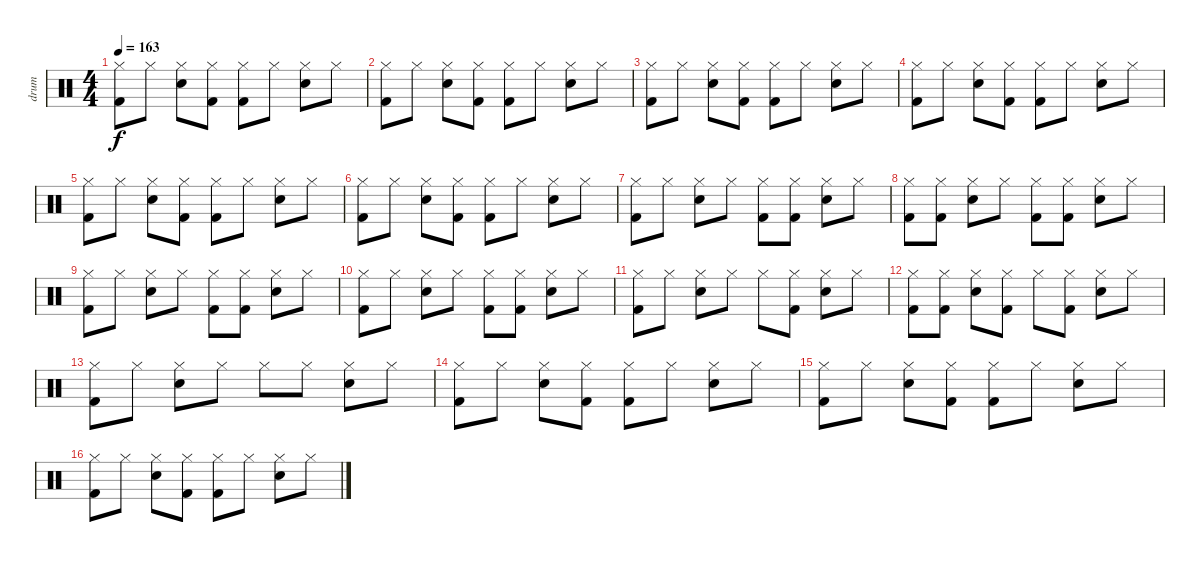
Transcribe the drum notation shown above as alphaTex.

\track ("drum" "drum") {instrument percussion}
\staff {score}
\articulation defaults
\ts (4 4)
\tempo 163
\clef neutral
\ks c
("Hi-Hat (closed)" "Kick (hit) 2").8{dy f} "Hi-Hat (closed)".8 ("Hi-Hat (closed)" "Electric Snare (hit)").8 ("Hi-Hat (closed)" "Kick (hit) 2").8 ("Hi-Hat (closed)" "Kick (hit) 2").8 "Hi-Hat (closed)".8 ("Hi-Hat (closed)" "Electric Snare (hit)").8 "Hi-Hat (closed)".8 |
("Hi-Hat (closed)" "Kick (hit) 2").8 "Hi-Hat (closed)".8 ("Hi-Hat (closed)" "Electric Snare (hit)").8 ("Hi-Hat (closed)" "Kick (hit) 2").8 ("Hi-Hat (closed)" "Kick (hit) 2").8 "Hi-Hat (closed)".8 ("Hi-Hat (closed)" "Electric Snare (hit)").8 "Hi-Hat (closed)".8 |
("Hi-Hat (closed)" "Kick (hit) 2").8 "Hi-Hat (closed)".8 ("Hi-Hat (closed)" "Electric Snare (hit)").8 ("Hi-Hat (closed)" "Kick (hit) 2").8 ("Hi-Hat (closed)" "Kick (hit) 2").8 "Hi-Hat (closed)".8 ("Hi-Hat (closed)" "Electric Snare (hit)").8 "Hi-Hat (closed)".8 |
("Hi-Hat (closed)" "Kick (hit) 2").8 "Hi-Hat (closed)".8 ("Hi-Hat (closed)" "Electric Snare (hit)").8 ("Hi-Hat (closed)" "Kick (hit) 2").8 ("Hi-Hat (closed)" "Kick (hit) 2").8 "Hi-Hat (closed)".8 ("Hi-Hat (closed)" "Electric Snare (hit)").8 "Hi-Hat (closed)".8 |
("Hi-Hat (closed)" "Kick (hit) 2").8 "Hi-Hat (closed)".8 ("Hi-Hat (closed)" "Electric Snare (hit)").8 ("Hi-Hat (closed)" "Kick (hit) 2").8 ("Hi-Hat (closed)" "Kick (hit) 2").8 "Hi-Hat (closed)".8 ("Hi-Hat (closed)" "Electric Snare (hit)").8 "Hi-Hat (closed)".8 |
("Hi-Hat (closed)" "Kick (hit) 2").8 "Hi-Hat (closed)".8 ("Hi-Hat (closed)" "Electric Snare (hit)").8 ("Hi-Hat (closed)" "Kick (hit) 2").8 ("Hi-Hat (closed)" "Kick (hit) 2").8 "Hi-Hat (closed)".8 ("Hi-Hat (closed)" "Electric Snare (hit)").8 "Hi-Hat (closed)".8 |
("Hi-Hat (closed)" "Kick (hit) 2").8 "Hi-Hat (closed)".8 ("Hi-Hat (closed)" "Electric Snare (hit)").8 "Hi-Hat (closed)".8 ("Hi-Hat (closed)" "Kick (hit) 2").8 ("Hi-Hat (closed)" "Kick (hit) 2").8 ("Hi-Hat (closed)" "Electric Snare (hit)").8 "Hi-Hat (closed)".8 |
("Hi-Hat (closed)" "Kick (hit) 2").8 ("Hi-Hat (closed)" "Kick (hit) 2").8 ("Hi-Hat (closed)" "Electric Snare (hit)").8 "Hi-Hat (closed)".8 ("Hi-Hat (closed)" "Kick (hit) 2").8 ("Hi-Hat (closed)" "Kick (hit) 2").8 ("Hi-Hat (closed)" "Electric Snare (hit)").8 "Hi-Hat (closed)".8 |
("Hi-Hat (closed)" "Kick (hit) 2").8 "Hi-Hat (closed)".8 ("Hi-Hat (closed)" "Electric Snare (hit)").8 "Hi-Hat (closed)".8 ("Hi-Hat (closed)" "Kick (hit) 2").8 ("Hi-Hat (closed)" "Kick (hit) 2").8 ("Hi-Hat (closed)" "Electric Snare (hit)").8 "Hi-Hat (closed)".8 |
("Hi-Hat (closed)" "Kick (hit) 2").8 "Hi-Hat (closed)".8 ("Hi-Hat (closed)" "Electric Snare (hit)").8 "Hi-Hat (closed)".8 ("Hi-Hat (closed)" "Kick (hit) 2").8 ("Hi-Hat (closed)" "Kick (hit) 2").8 ("Hi-Hat (closed)" "Electric Snare (hit)").8 "Hi-Hat (closed)".8 |
("Hi-Hat (closed)" "Kick (hit) 2").8 "Hi-Hat (closed)".8 ("Hi-Hat (closed)" "Electric Snare (hit)").8 "Hi-Hat (closed)".8 "Hi-Hat (closed)".8 ("Hi-Hat (closed)" "Kick (hit) 2").8 ("Hi-Hat (closed)" "Electric Snare (hit)").8 "Hi-Hat (closed)".8 |
("Hi-Hat (closed)" "Kick (hit) 2").8 ("Hi-Hat (closed)" "Kick (hit) 2").8 ("Hi-Hat (closed)" "Electric Snare (hit)").8 ("Hi-Hat (closed)" "Kick (hit) 2").8 "Hi-Hat (closed)".8 ("Hi-Hat (closed)" "Kick (hit) 2").8 ("Hi-Hat (closed)" "Electric Snare (hit)").8 "Hi-Hat (closed)".8 |
("Hi-Hat (closed)" "Kick (hit) 2").8 "Hi-Hat (closed)".8 ("Hi-Hat (closed)" "Electric Snare (hit)").8 "Hi-Hat (closed)".8 "Hi-Hat (closed)".8 "Hi-Hat (closed)".8 ("Hi-Hat (closed)" "Electric Snare (hit)").8 "Hi-Hat (closed)".8 |
("Hi-Hat (closed)" "Kick (hit) 2").8 "Hi-Hat (closed)".8 ("Hi-Hat (closed)" "Electric Snare (hit)").8 ("Hi-Hat (closed)" "Kick (hit) 2").8 ("Hi-Hat (closed)" "Kick (hit) 2").8 "Hi-Hat (closed)".8 ("Hi-Hat (closed)" "Electric Snare (hit)").8 "Hi-Hat (closed)".8 |
("Hi-Hat (closed)" "Kick (hit) 2").8 "Hi-Hat (closed)".8 ("Hi-Hat (closed)" "Electric Snare (hit)").8 ("Hi-Hat (closed)" "Kick (hit) 2").8 ("Hi-Hat (closed)" "Kick (hit) 2").8 "Hi-Hat (closed)".8 ("Hi-Hat (closed)" "Electric Snare (hit)").8 "Hi-Hat (closed)".8 |
("Hi-Hat (closed)" "Kick (hit) 2").8 "Hi-Hat (closed)".8 ("Hi-Hat (closed)" "Electric Snare (hit)").8 ("Hi-Hat (closed)" "Kick (hit) 2").8 ("Hi-Hat (closed)" "Kick (hit) 2").8 "Hi-Hat (closed)".8 ("Hi-Hat (closed)" "Electric Snare (hit)").8 "Hi-Hat (closed)".8
